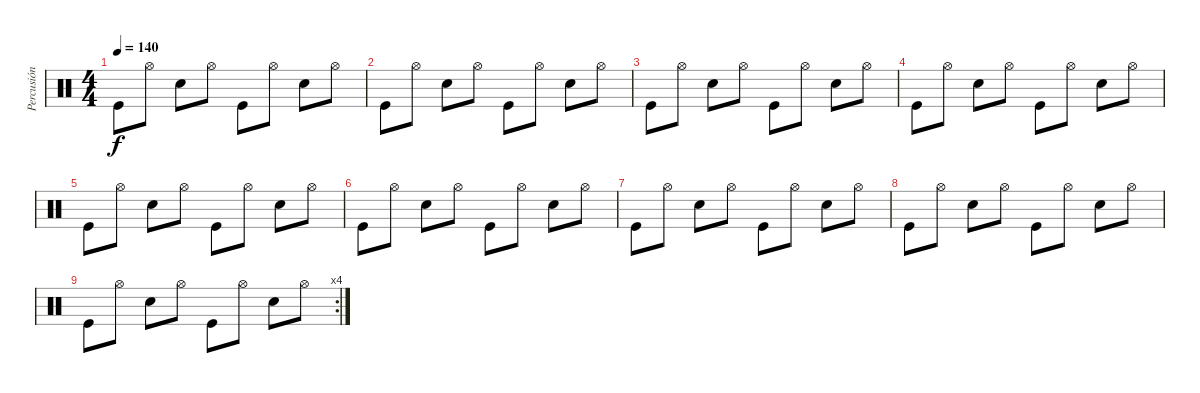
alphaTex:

\track ("Percusión" "Percusión") {instrument percussion}
\staff {score}
\articulation defaults
\ts (4 4)
\tempo 140
\clef neutral
\ks c "Kick (hit)".8{dy f} "Hi-Hat (open)".8 "Electric Snare (hit)".8 "Hi-Hat (open)".8 "Kick (hit)".8 "Hi-Hat (open)".8 "Electric Snare (hit)".8 "Hi-Hat (open)".8
|
"Kick (hit)".8 "Hi-Hat (open)".8 "Electric Snare (hit)".8 "Hi-Hat (open)".8 "Kick (hit)".8 "Hi-Hat (open)".8 "Electric Snare (hit)".8 "Hi-Hat (open)".8 |
"Kick (hit)".8 "Hi-Hat (open)".8 "Electric Snare (hit)".8 "Hi-Hat (open)".8 "Kick (hit)".8 "Hi-Hat (open)".8 "Electric Snare (hit)".8 "Hi-Hat (open)".8 |
"Kick (hit)".8 "Hi-Hat (open)".8 "Electric Snare (hit)".8 "Hi-Hat (open)".8 "Kick (hit)".8 "Hi-Hat (open)".8 "Electric Snare (hit)".8 "Hi-Hat (open)".8 |
"Kick (hit)".8 "Hi-Hat (open)".8 "Electric Snare (hit)".8 "Hi-Hat (open)".8 "Kick (hit)".8 "Hi-Hat (open)".8 "Electric Snare (hit)".8 "Hi-Hat (open)".8 |
"Kick (hit)".8 "Hi-Hat (open)".8 "Electric Snare (hit)".8 "Hi-Hat (open)".8 "Kick (hit)".8 "Hi-Hat (open)".8 "Electric Snare (hit)".8 "Hi-Hat (open)".8 |
"Kick (hit)".8 "Hi-Hat (open)".8 "Electric Snare (hit)".8 "Hi-Hat (open)".8 "Kick (hit)".8 "Hi-Hat (open)".8 "Electric Snare (hit)".8 "Hi-Hat (open)".8 |
"Kick (hit)".8 "Hi-Hat (open)".8 "Electric Snare (hit)".8 "Hi-Hat (open)".8 "Kick (hit)".8 "Hi-Hat (open)".8 "Electric Snare (hit)".8 "Hi-Hat (open)".8 |
\rc 4 "Kick (hit)".8 "Hi-Hat (open)".8 "Electric Snare (hit)".8 "Hi-Hat (open)".8 "Kick (hit)".8 "Hi-Hat (open)".8 "Electric Snare (hit)".8 "Hi-Hat (open)".8
